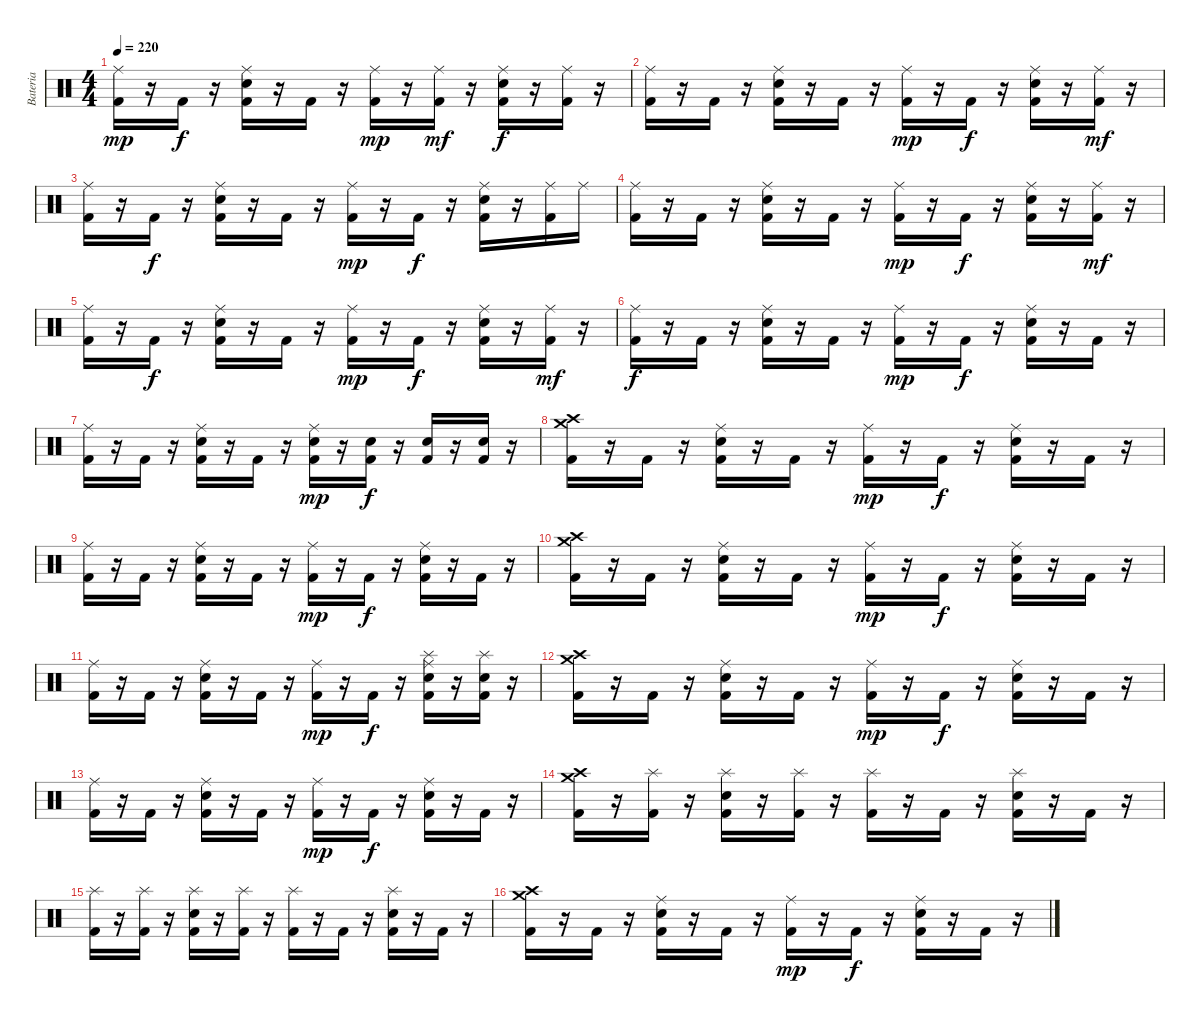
\track ("Bateria" "Bateria") {instrument percussion}
\staff {score}
\articulation defaults
\ts (4 4)
\tempo 220
\clef neutral
\ks c
("Ride (middle)" "Kick (hit) 2").16{dy mp} r.16 "Kick (hit) 2".16{dy f} r.16 ("Ride (middle)" "Electric Snare (hit)" "Kick (hit) 2").16 r.16 "Kick (hit) 2".16 r.16 ("Ride (middle)" "Kick (hit) 2").16{dy mp} r.16 ("Ride (middle)" "Kick (hit) 2").16{dy mf} r.16 ("Ride (middle)" "Electric Snare (hit)" "Kick (hit) 2").16{dy f} r.16 ("Ride (middle)" "Kick (hit) 2").16 r.16 |
("Ride (middle)" "Kick (hit) 2").16 r.16 "Kick (hit) 2".16 r.16 ("Ride (middle)" "Electric Snare (hit)" "Kick (hit) 2").16 r.16 "Kick (hit) 2".16 r.16 ("Ride (middle)" "Kick (hit) 2").16{dy mp} r.16 "Kick (hit) 2".16{dy f} r.16 ("Ride (middle)" "Electric Snare (hit)" "Kick (hit) 2").16 r.16 ("Ride (middle)" "Kick (hit) 2").16{dy mf} r.16 |
("Ride (middle)" "Kick (hit) 2").16 r.16 "Kick (hit) 2".16{dy f} r.16 ("Ride (middle)" "Electric Snare (hit)" "Kick (hit) 2").16 r.16 "Kick (hit) 2".16 r.16 ("Ride (middle)" "Kick (hit) 2").16{dy mp} r.16 "Kick (hit) 2".16{dy f} r.16 ("Ride (middle)" "Electric Snare (hit)" "Kick (hit) 2").16 r.16 ("Ride (middle)" "Kick (hit) 2").16 "Ride (middle)".16 |
("Ride (middle)" "Kick (hit) 2").16 r.16 "Kick (hit) 2".16 r.16 ("Ride (middle)" "Electric Snare (hit)" "Kick (hit) 2").16 r.16 "Kick (hit) 2".16 r.16 ("Ride (middle)" "Kick (hit) 2").16{dy mp} r.16 "Kick (hit) 2".16{dy f} r.16 ("Ride (middle)" "Electric Snare (hit)" "Kick (hit) 2").16 r.16 ("Ride (middle)" "Kick (hit) 2").16{dy mf} r.16 |
("Ride (middle)" "Kick (hit) 2").16 r.16 "Kick (hit) 2".16{dy f} r.16 ("Ride (middle)" "Electric Snare (hit)" "Kick (hit) 2").16 r.16 "Kick (hit) 2".16 r.16 ("Ride (middle)" "Kick (hit) 2").16{dy mp} r.16 "Kick (hit) 2".16{dy f} r.16 ("Ride (middle)" "Electric Snare (hit)" "Kick (hit) 2").16 r.16 ("Ride (middle)" "Kick (hit) 2").16{dy mf} r.16 |
("Ride (middle)" "Kick (hit) 2").16{dy f} r.16 "Kick (hit) 2".16 r.16 ("Ride (middle)" "Electric Snare (hit)" "Kick (hit) 2").16 r.16 "Kick (hit) 2".16 r.16 ("Ride (middle)" "Kick (hit) 2").16{dy mp} r.16 "Kick (hit) 2".16{dy f} r.16 ("Ride (middle)" "Electric Snare (hit)" "Kick (hit) 2").16 r.16 "Kick (hit) 2".16 r.16 |
("Ride (middle)" "Kick (hit) 2").16 r.16 "Kick (hit) 2".16 r.16 ("Ride (middle)" "Electric Snare (hit)" "Kick (hit) 2").16 r.16 "Kick (hit) 2".16 r.16 ("Ride (middle)" "Electric Snare (hit)" "Kick (hit) 2").16{dy mp} r.16 ("Electric Snare (hit)" "Kick (hit) 2").16{dy f} r.16 ("Electric Snare (hit)" "Kick (hit) 2").16 r.16 ("Electric Snare (hit)" "Kick (hit) 2").16 r.16 |
("Crash medium (hit)" "Crash high (hit)" "Kick (hit) 2").16 r.16 "Kick (hit) 2".16 r.16 ("Ride (middle)" "Electric Snare (hit)" "Kick (hit) 2").16 r.16 "Kick (hit) 2".16 r.16 ("Ride (middle)" "Kick (hit) 2").16{dy mp} r.16 "Kick (hit) 2".16{dy f} r.16 ("Ride (middle)" "Electric Snare (hit)" "Kick (hit) 2").16 r.16 "Kick (hit) 2".16 r.16 |
("Ride (middle)" "Kick (hit) 2").16 r.16 "Kick (hit) 2".16 r.16 ("Ride (middle)" "Electric Snare (hit)" "Kick (hit) 2").16 r.16 "Kick (hit) 2".16 r.16 ("Ride (middle)" "Kick (hit) 2").16{dy mp} r.16 "Kick (hit) 2".16{dy f} r.16 ("Ride (middle)" "Electric Snare (hit)" "Kick (hit) 2").16 r.16 "Kick (hit) 2".16 r.16 |
("Crash medium (hit)" "Crash high (hit)" "Kick (hit) 2").16 r.16 "Kick (hit) 2".16 r.16 ("Ride (middle)" "Electric Snare (hit)" "Kick (hit) 2").16 r.16 "Kick (hit) 2".16 r.16 ("Ride (middle)" "Kick (hit) 2").16{dy mp} r.16 "Kick (hit) 2".16{dy f} r.16 ("Ride (middle)" "Electric Snare (hit)" "Kick (hit) 2").16 r.16 "Kick (hit) 2".16 r.16 |
("Ride (middle)" "Kick (hit) 2").16 r.16 "Kick (hit) 2".16 r.16 ("Ride (middle)" "Electric Snare (hit)" "Kick (hit) 2").16 r.16 "Kick (hit) 2".16 r.16 ("Ride (middle)" "Kick (hit) 2").16{dy mp} r.16 "Kick (hit) 2".16{dy f} r.16 ("Splash (hit)" "Ride (middle)" "Electric Snare (hit)" "Kick (hit) 2").16 r.16 ("Splash (hit)" "Electric Snare (hit)" "Kick (hit) 2").16 r.16 |
("Crash medium (hit)" "Crash high (hit)" "Kick (hit) 2").16 r.16 "Kick (hit) 2".16 r.16 ("Ride (middle)" "Electric Snare (hit)" "Kick (hit) 2").16 r.16 "Kick (hit) 2".16 r.16 ("Ride (middle)" "Kick (hit) 2").16{dy mp} r.16 "Kick (hit) 2".16{dy f} r.16 ("Ride (middle)" "Electric Snare (hit)" "Kick (hit) 2").16 r.16 "Kick (hit) 2".16 r.16 |
("Ride (middle)" "Kick (hit) 2").16 r.16 "Kick (hit) 2".16 r.16 ("Ride (middle)" "Electric Snare (hit)" "Kick (hit) 2").16 r.16 "Kick (hit) 2".16 r.16 ("Ride (middle)" "Kick (hit) 2").16{dy mp} r.16 "Kick (hit) 2".16{dy f} r.16 ("Ride (middle)" "Electric Snare (hit)" "Kick (hit) 2").16 r.16 "Kick (hit) 2".16 r.16 |
("Crash medium (hit)" "Crash high (hit)" "Kick (hit) 2").16 r.16 ("Splash (hit)" "Kick (hit) 2").16 r.16 ("Splash (hit)" "Electric Snare (hit)" "Kick (hit) 2").16 r.16 ("Splash (hit)" "Kick (hit) 2").16 r.16 ("Splash (hit)" "Kick (hit) 2").16 r.16 "Kick (hit) 2".16 r.16 ("Splash (hit)" "Electric Snare (hit)" "Kick (hit) 2").16 r.16 "Kick (hit) 2".16 r.16 |
("Splash (hit)" "Kick (hit) 2").16 r.16 ("Splash (hit)" "Kick (hit) 2").16 r.16 ("Splash (hit)" "Electric Snare (hit)" "Kick (hit) 2").16 r.16 ("Splash (hit)" "Kick (hit) 2").16 r.16 ("Splash (hit)" "Kick (hit) 2").16 r.16 "Kick (hit) 2".16 r.16 ("Splash (hit)" "Electric Snare (hit)" "Kick (hit) 2").16 r.16 "Kick (hit) 2".16 r.16 |
("Crash medium (hit)" "Crash high (hit)" "Kick (hit) 2").16 r.16 "Kick (hit) 2".16 r.16 ("Ride (middle)" "Electric Snare (hit)" "Kick (hit) 2").16 r.16 "Kick (hit) 2".16 r.16 ("Ride (middle)" "Kick (hit) 2").16{dy mp} r.16 "Kick (hit) 2".16{dy f} r.16 ("Ride (middle)" "Electric Snare (hit)" "Kick (hit) 2").16 r.16 "Kick (hit) 2".16 r.16
